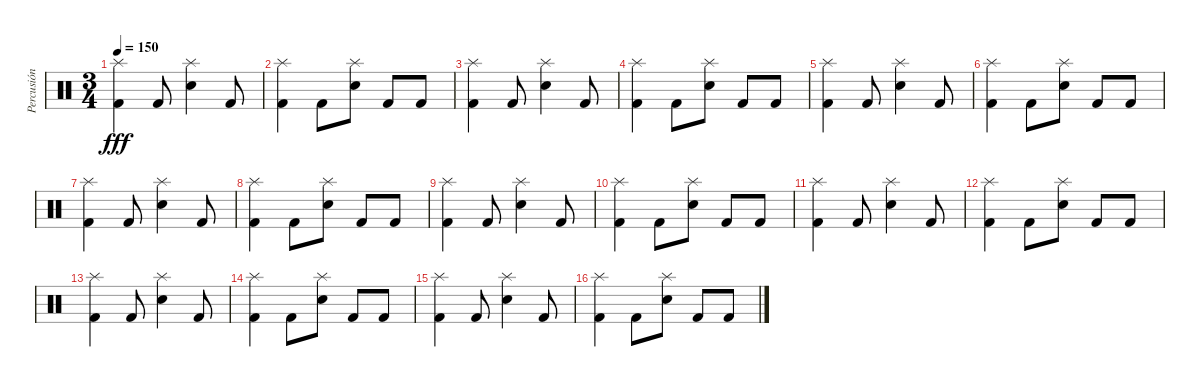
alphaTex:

\track ("Percusión" "Percusión") {instrument percussion}
\staff {score}
\articulation defaults
\ts (3 4)
\tempo 150
\clef neutral
\ks c
("Splash (hit)" "Kick (hit) 2").4{dy fff} "Kick (hit) 2".8 ("Splash (hit)" "Snare (hit) 2").4 "Kick (hit) 2".8 |
("Splash (hit)" "Kick (hit) 2").4 "Kick (hit) 2".8 ("Splash (hit)" "Snare (hit) 2").8 "Kick (hit) 2".8 "Kick (hit) 2".8 |
("Splash (hit)" "Kick (hit) 2").4 "Kick (hit) 2".8 ("Splash (hit)" "Snare (hit) 2").4 "Kick (hit) 2".8 |
("Splash (hit)" "Kick (hit) 2").4 "Kick (hit) 2".8 ("Splash (hit)" "Snare (hit) 2").8 "Kick (hit) 2".8 "Kick (hit) 2".8 |
("Splash (hit)" "Kick (hit) 2").4 "Kick (hit) 2".8 ("Splash (hit)" "Snare (hit) 2").4 "Kick (hit) 2".8 |
("Splash (hit)" "Kick (hit) 2").4 "Kick (hit) 2".8 ("Splash (hit)" "Snare (hit) 2").8 "Kick (hit) 2".8 "Kick (hit) 2".8 |
("Splash (hit)" "Kick (hit) 2").4 "Kick (hit) 2".8 ("Splash (hit)" "Snare (hit) 2").4 "Kick (hit) 2".8 |
("Splash (hit)" "Kick (hit) 2").4 "Kick (hit) 2".8 ("Splash (hit)" "Snare (hit) 2").8 "Kick (hit) 2".8 "Kick (hit) 2".8 |
("Splash (hit)" "Kick (hit) 2").4 "Kick (hit) 2".8 ("Splash (hit)" "Snare (hit) 2").4 "Kick (hit) 2".8 |
("Splash (hit)" "Kick (hit) 2").4 "Kick (hit) 2".8 ("Splash (hit)" "Snare (hit) 2").8 "Kick (hit) 2".8 "Kick (hit) 2".8 |
("Splash (hit)" "Kick (hit) 2").4 "Kick (hit) 2".8 ("Splash (hit)" "Snare (hit) 2").4 "Kick (hit) 2".8 |
("Splash (hit)" "Kick (hit) 2").4 "Kick (hit) 2".8 ("Splash (hit)" "Snare (hit) 2").8 "Kick (hit) 2".8 "Kick (hit) 2".8 |
("Splash (hit)" "Kick (hit) 2").4 "Kick (hit) 2".8 ("Splash (hit)" "Snare (hit) 2").4 "Kick (hit) 2".8 |
("Splash (hit)" "Kick (hit) 2").4 "Kick (hit) 2".8 ("Splash (hit)" "Snare (hit) 2").8 "Kick (hit) 2".8 "Kick (hit) 2".8 |
("Splash (hit)" "Kick (hit) 2").4 "Kick (hit) 2".8 ("Splash (hit)" "Snare (hit) 2").4 "Kick (hit) 2".8 |
("Splash (hit)" "Kick (hit) 2").4 "Kick (hit) 2".8 ("Splash (hit)" "Snare (hit) 2").8 "Kick (hit) 2".8 "Kick (hit) 2".8
